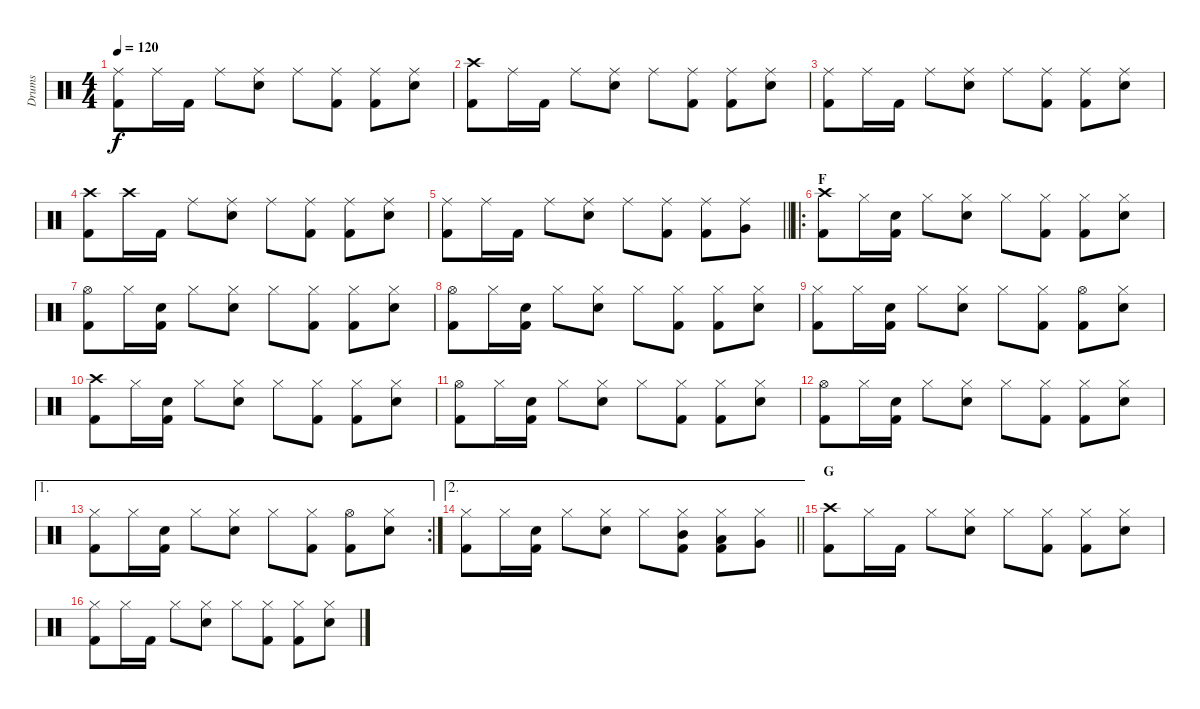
\track ("Drums" "Drums") {instrument percussion}
\staff {score}
\articulation defaults
\ts (4 4)
\tempo 120
\clef neutral
\ks c
("Ride (middle)" "Kick (hit) 2").8{dy f} "Ride (middle)".16 "Kick (hit) 2".16 "Ride (middle)".8 ("Ride (middle)" "Snare (hit) 2").8 "Ride (middle)".8 ("Ride (middle)" "Kick (hit) 2").8 ("Ride (middle)" "Kick (hit) 2").8 ("Ride (middle)" "Snare (hit) 2").8 |
("Crash high (hit)" "Kick (hit) 2").8 "Ride (middle)".16 "Kick (hit) 2".16 "Ride (middle)".8 ("Ride (middle)" "Snare (hit) 2").8 "Ride (middle)".8 ("Ride (middle)" "Kick (hit) 2").8 ("Ride (middle)" "Kick (hit) 2").8 ("Ride (middle)" "Snare (hit) 2").8 |
("Ride (middle)" "Kick (hit) 2").8 "Ride (middle)".16 "Kick (hit) 2".16 "Ride (middle)".8 ("Ride (middle)" "Snare (hit) 2").8 "Ride (middle)".8 ("Ride (middle)" "Kick (hit) 2").8 ("Ride (middle)" "Kick (hit) 2").8 ("Ride (middle)" "Snare (hit) 2").8 |
("Crash high (hit)" "Kick (hit) 2").8 "Crash high (hit)".16 "Kick (hit) 2".16 "Ride (middle)".8 ("Ride (middle)" "Snare (hit) 2").8 "Ride (middle)".8 ("Ride (middle)" "Kick (hit) 2").8 ("Ride (middle)" "Kick (hit) 2").8 ("Ride (middle)" "Snare (hit) 2").8 |
\barLineRight lightlight
("Ride (middle)" "Kick (hit) 2").8 "Ride (middle)".16 "Kick (hit) 2".16 "Ride (middle)".8 ("Ride (middle)" "Snare (hit) 2").8 "Ride (middle)".8 ("Ride (middle)" "Kick (hit) 2").8 ("Ride (middle)" "Kick (hit) 2").8 ("Ride (middle)" "Very Low Tom (hit)").8 |
\ro
\section ("" "F")
("Crash high (hit)" "Kick (hit) 2").8 "Hi-Hat (closed)".16 ("Snare (hit) 2" "Kick (hit) 2").16 "Hi-Hat (closed)".8 ("Hi-Hat (closed)" "Snare (hit) 2").8 "Hi-Hat (closed)".8 ("Hi-Hat (closed)" "Kick (hit) 2").8 ("Hi-Hat (closed)" "Kick (hit) 2").8 ("Hi-Hat (closed)" "Snare (hit) 2").8 |
("Hi-Hat (open)" "Kick (hit) 2").8 "Hi-Hat (closed)".16 ("Snare (hit) 2" "Kick (hit) 2").16 "Hi-Hat (closed)".8 ("Hi-Hat (closed)" "Snare (hit) 2").8 "Hi-Hat (closed)".8 ("Hi-Hat (closed)" "Kick (hit) 2").8 ("Hi-Hat (closed)" "Kick (hit) 2").8 ("Hi-Hat (closed)" "Snare (hit) 2").8 |
("Hi-Hat (open)" "Kick (hit) 2").8 "Hi-Hat (closed)".16 ("Snare (hit) 2" "Kick (hit) 2").16 "Hi-Hat (closed)".8 ("Hi-Hat (closed)" "Snare (hit) 2").8 "Hi-Hat (closed)".8 ("Hi-Hat (closed)" "Kick (hit) 2").8 ("Hi-Hat (closed)" "Kick (hit) 2").8 ("Hi-Hat (closed)" "Snare (hit) 2").8 |
("Hi-Hat (closed)" "Kick (hit) 2").8 "Hi-Hat (closed)".16 ("Snare (hit) 2" "Kick (hit) 2").16 "Hi-Hat (closed)".8 ("Hi-Hat (closed)" "Snare (hit) 2").8 "Hi-Hat (closed)".8 ("Hi-Hat (closed)" "Kick (hit) 2").8 ("Hi-Hat (open)" "Kick (hit) 2").8 ("Hi-Hat (closed)" "Snare (hit) 2").8 |
("Crash high (hit)" "Kick (hit) 2").8 "Hi-Hat (closed)".16 ("Snare (hit) 2" "Kick (hit) 2").16 "Hi-Hat (closed)".8 ("Hi-Hat (closed)" "Snare (hit) 2").8 "Hi-Hat (closed)".8 ("Hi-Hat (closed)" "Kick (hit) 2").8 ("Hi-Hat (closed)" "Kick (hit) 2").8 ("Hi-Hat (closed)" "Snare (hit) 2").8 |
("Hi-Hat (open)" "Kick (hit) 2").8 "Hi-Hat (closed)".16 ("Snare (hit) 2" "Kick (hit) 2").16 "Hi-Hat (closed)".8 ("Hi-Hat (closed)" "Snare (hit) 2").8 "Hi-Hat (closed)".8 ("Hi-Hat (closed)" "Kick (hit) 2").8 ("Hi-Hat (closed)" "Kick (hit) 2").8 ("Hi-Hat (closed)" "Snare (hit) 2").8 |
("Hi-Hat (open)" "Kick (hit) 2").8 "Hi-Hat (closed)".16 ("Snare (hit) 2" "Kick (hit) 2").16 "Hi-Hat (closed)".8 ("Hi-Hat (closed)" "Snare (hit) 2").8 "Hi-Hat (closed)".8 ("Hi-Hat (closed)" "Kick (hit) 2").8 ("Hi-Hat (closed)" "Kick (hit) 2").8 ("Hi-Hat (closed)" "Snare (hit) 2").8 |
\ae 1
\rc 2
("Hi-Hat (closed)" "Kick (hit) 2").8 "Hi-Hat (closed)".16 ("Snare (hit) 2" "Kick (hit) 2").16 "Hi-Hat (closed)".8 ("Hi-Hat (closed)" "Snare (hit) 2").8 "Hi-Hat (closed)".8 ("Hi-Hat (closed)" "Kick (hit) 2").8 ("Hi-Hat (open)" "Kick (hit) 2").8 ("Hi-Hat (closed)" "Snare (hit) 2").8 |
\ae 2
\barLineRight lightlight
("Hi-Hat (closed)" "Kick (hit) 2").8 "Hi-Hat (closed)".16 ("Snare (hit) 2" "Kick (hit) 2").16 "Hi-Hat (closed)".8 ("Hi-Hat (closed)" "Snare (hit) 2").8 "Hi-Hat (closed)".8 ("Hi-Hat (closed)" "Mid Tom (hit)" "Kick (hit) 2").8 ("Hi-Hat (closed)" "Low Tom (hit)" "Kick (hit) 2").8 ("Hi-Hat (closed)" "Very Low Tom (hit)").8 |
\section ("" "G")
("Crash high (hit)" "Kick (hit) 2").8 "Hi-Hat (closed)".16 "Kick (hit) 2".16 "Hi-Hat (closed)".8 ("Hi-Hat (closed)" "Snare (hit) 2").8 "Hi-Hat (closed)".8 ("Hi-Hat (closed)" "Kick (hit) 2").8 ("Hi-Hat (closed)" "Kick (hit) 2").8 ("Hi-Hat (closed)" "Snare (hit) 2").8 |
("Hi-Hat (closed)" "Kick (hit) 2").8 "Hi-Hat (closed)".16 "Kick (hit) 2".16 "Hi-Hat (closed)".8 ("Hi-Hat (closed)" "Snare (hit) 2").8 "Hi-Hat (closed)".8 ("Hi-Hat (closed)" "Kick (hit) 2").8 ("Hi-Hat (closed)" "Kick (hit) 2").8 ("Hi-Hat (closed)" "Snare (hit) 2").8
